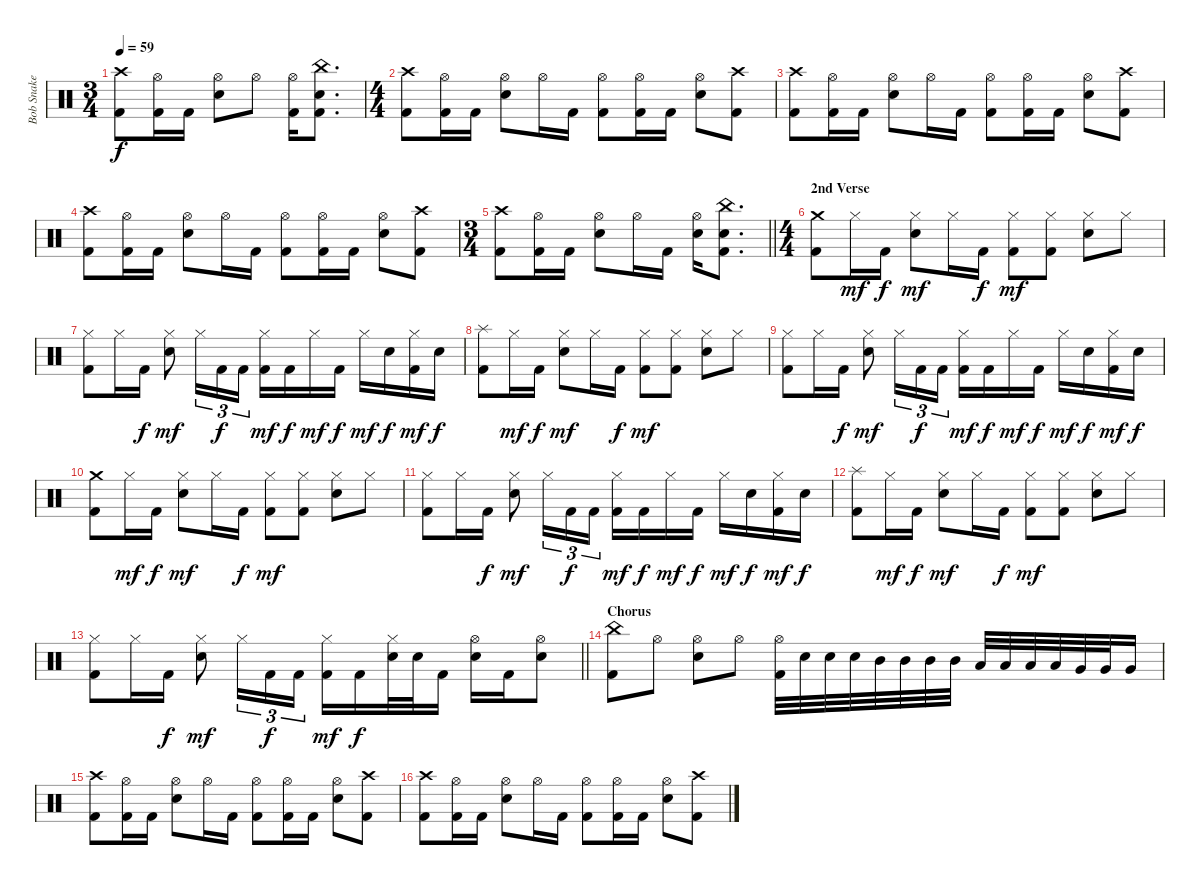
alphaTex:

\track ("Bob Snake" "Bob Snake") {instrument percussion}
\staff {score}
\articulation defaults
\ts (3 4)
\tempo 59
\clef neutral
\ks c
("Crash high (hit)" "Kick (hit) 2").8{dy f} ("Hi-Hat (open)" "Kick (hit) 2").16 "Kick (hit) 2".16 ("Hi-Hat (open)" "Snare (hit) 2").8 "Hi-Hat (open)".8 ("Hi-Hat (open)" "Kick (hit) 2").16 ("China (hit)" "Snare (hit) 2" "Kick (hit) 2").8{d} |
\ts (4 4)
("Crash high (hit)" "Kick (hit) 2").8 ("Hi-Hat (open)" "Kick (hit) 2").16 "Kick (hit) 2".16 ("Hi-Hat (open)" "Snare (hit) 2").8 "Hi-Hat (open)".16 "Kick (hit) 2".16 ("Hi-Hat (open)" "Kick (hit) 2").8 ("Hi-Hat (open)" "Kick (hit) 2").16 "Kick (hit) 2".16 ("Hi-Hat (open)" "Snare (hit) 2").8 ("Crash high (hit)" "Kick (hit) 2").8 |
("Crash high (hit)" "Kick (hit) 2").8 ("Hi-Hat (open)" "Kick (hit) 2").16 "Kick (hit) 2".16 ("Hi-Hat (open)" "Snare (hit) 2").8 "Hi-Hat (open)".16 "Kick (hit) 2".16 ("Hi-Hat (open)" "Kick (hit) 2").8 ("Hi-Hat (open)" "Kick (hit) 2").16 "Kick (hit) 2".16 ("Hi-Hat (open)" "Snare (hit) 2").8 ("Crash high (hit)" "Kick (hit) 2").8 |
("Crash high (hit)" "Kick (hit) 2").8 ("Hi-Hat (open)" "Kick (hit) 2").16 "Kick (hit) 2".16 ("Hi-Hat (open)" "Snare (hit) 2").8 "Hi-Hat (open)".16 "Kick (hit) 2".16 ("Hi-Hat (open)" "Kick (hit) 2").8 ("Hi-Hat (open)" "Kick (hit) 2").16 "Kick (hit) 2".16 ("Hi-Hat (open)" "Snare (hit) 2").8 ("Crash high (hit)" "Kick (hit) 2").8 |
\ts (3 4)
\barLineRight lightlight
("Crash high (hit)" "Kick (hit) 2").8 ("Hi-Hat (open)" "Kick (hit) 2").16 "Kick (hit) 2".16 ("Hi-Hat (open)" "Snare (hit) 2").8 "Hi-Hat (open)".16 "Kick (hit) 2".16 ("Hi-Hat (open)" "Snare (hit) 2").16 ("China (hit)" "Snare (hit) 2" "Kick (hit) 2").8{d} |
\ts (4 4)
\section ("" "2nd Verse")
("Crash medium (hit)" "Kick (hit) 2").8 "Hi-Hat (closed)".16{dy mf} "Kick (hit) 2".16{dy f} ("Hi-Hat (closed)" "Snare (hit) 2").8{dy mf} "Hi-Hat (closed)".16 "Kick (hit) 2".16{dy f} ("Hi-Hat (closed)" "Kick (hit) 2").8{dy mf} ("Hi-Hat (closed)" "Kick (hit) 2").8 ("Hi-Hat (closed)" "Snare (hit) 2").8 "Hi-Hat (closed)".8 |
("Hi-Hat (closed)" "Kick (hit) 2").8 "Hi-Hat (closed)".16 "Kick (hit) 2".16{dy f} ("Hi-Hat (closed)" "Snare (hit) 2").8{dy mf} "Hi-Hat (closed)".16{tu (3 2)} "Kick (hit) 2".16{tu (3 2) dy f} "Kick (hit) 2".16{tu (3 2)} ("Hi-Hat (closed)" "Kick (hit) 2").16{dy mf} "Kick (hit) 2".16{dy f} "Hi-Hat (closed)".16{dy mf} "Kick (hit) 2".16{dy f} "Hi-Hat (closed)".16{dy mf} "Snare (hit) 2".16{dy f} ("Hi-Hat (closed)" "Kick (hit) 2").16{dy mf} "Snare (hit) 2".16{dy f} |
("Splash (hit)" "Kick (hit) 2").8 "Hi-Hat (closed)".16{dy mf} "Kick (hit) 2".16{dy f} ("Hi-Hat (closed)" "Snare (hit) 2").8{dy mf} "Hi-Hat (closed)".16 "Kick (hit) 2".16{dy f} ("Hi-Hat (closed)" "Kick (hit) 2").8{dy mf} ("Hi-Hat (closed)" "Kick (hit) 2").8 ("Hi-Hat (closed)" "Snare (hit) 2").8 "Hi-Hat (closed)".8 |
("Hi-Hat (closed)" "Kick (hit) 2").8 "Hi-Hat (closed)".16 "Kick (hit) 2".16{dy f} ("Hi-Hat (closed)" "Snare (hit) 2").8{dy mf} "Hi-Hat (closed)".16{tu (3 2)} "Kick (hit) 2".16{tu (3 2) dy f} "Kick (hit) 2".16{tu (3 2)} ("Hi-Hat (closed)" "Kick (hit) 2").16{dy mf} "Kick (hit) 2".16{dy f} "Hi-Hat (closed)".16{dy mf} "Kick (hit) 2".16{dy f} "Hi-Hat (closed)".16{dy mf} "Snare (hit) 2".16{dy f} ("Hi-Hat (closed)" "Kick (hit) 2").16{dy mf} "Snare (hit) 2".16{dy f} |
("Crash medium (hit)" "Kick (hit) 2").8 "Hi-Hat (closed)".16{dy mf} "Kick (hit) 2".16{dy f} ("Hi-Hat (closed)" "Snare (hit) 2").8{dy mf} "Hi-Hat (closed)".16 "Kick (hit) 2".16{dy f} ("Hi-Hat (closed)" "Kick (hit) 2").8{dy mf} ("Hi-Hat (closed)" "Kick (hit) 2").8 ("Hi-Hat (closed)" "Snare (hit) 2").8 "Hi-Hat (closed)".8 |
("Hi-Hat (closed)" "Kick (hit) 2").8 "Hi-Hat (closed)".16 "Kick (hit) 2".16{dy f} ("Hi-Hat (closed)" "Snare (hit) 2").8{dy mf} "Hi-Hat (closed)".16{tu (3 2)} "Kick (hit) 2".16{tu (3 2) dy f} "Kick (hit) 2".16{tu (3 2)} ("Hi-Hat (closed)" "Kick (hit) 2").16{dy mf} "Kick (hit) 2".16{dy f} "Hi-Hat (closed)".16{dy mf} "Kick (hit) 2".16{dy f} "Hi-Hat (closed)".16{dy mf} "Snare (hit) 2".16{dy f} ("Hi-Hat (closed)" "Kick (hit) 2").16{dy mf} "Snare (hit) 2".16{dy f} |
("Splash (hit)" "Kick (hit) 2").8 "Hi-Hat (closed)".16{dy mf} "Kick (hit) 2".16{dy f} ("Hi-Hat (closed)" "Snare (hit) 2").8{dy mf} "Hi-Hat (closed)".16 "Kick (hit) 2".16{dy f} ("Hi-Hat (closed)" "Kick (hit) 2").8{dy mf} ("Hi-Hat (closed)" "Kick (hit) 2").8 ("Hi-Hat (closed)" "Snare (hit) 2").8 "Hi-Hat (closed)".8 |
\barLineRight lightlight
("Hi-Hat (closed)" "Kick (hit) 2").8 "Hi-Hat (closed)".16 "Kick (hit) 2".16{dy f} ("Hi-Hat (closed)" "Snare (hit) 2").8{dy mf} "Hi-Hat (closed)".16{tu (3 2)} "Kick (hit) 2".16{tu (3 2) dy f} "Kick (hit) 2".16{tu (3 2)} ("Hi-Hat (closed)" "Kick (hit) 2").16{dy mf} "Kick (hit) 2".16{dy f} ("Hi-Hat (closed)" "Snare (hit) 2").32 "Snare (hit) 2".32 "Kick (hit) 2".16 ("Hi-Hat (open)" "Snare (hit) 2").16 "Kick (hit) 2".16 ("Hi-Hat (open)" "Snare (hit) 2").8 |
\section ("" "Chorus")
("China (hit)" "Kick (hit) 2").8 "Hi-Hat (open)".8 ("Hi-Hat (open)" "Snare (hit) 2").8 "Hi-Hat (open)".8 ("Hi-Hat (open)" "Kick (hit) 2").32 "Snare (hit) 2".32 "Snare (hit) 2".32 "Snare (hit) 2".32 "Mid Tom (hit)".32 "Mid Tom (hit)".32 "Mid Tom (hit)".32 "Mid Tom (hit)".32 "Low Tom (hit)".32 "Low Tom (hit)".32 "Low Tom (hit)".32 "Low Tom (hit)".32 "Very Low Tom (hit)".32 "Very Low Tom (hit)".32 "Very Low Tom (hit)".16 |
("Crash high (hit)" "Kick (hit) 2").8 ("Hi-Hat (open)" "Kick (hit) 2").16 "Kick (hit) 2".16 ("Hi-Hat (open)" "Snare (hit) 2").8 "Hi-Hat (open)".16 "Kick (hit) 2".16 ("Hi-Hat (open)" "Kick (hit) 2").8 ("Hi-Hat (open)" "Kick (hit) 2").16 "Kick (hit) 2".16 ("Hi-Hat (open)" "Snare (hit) 2").8 ("Crash high (hit)" "Kick (hit) 2").8 |
("Crash high (hit)" "Kick (hit) 2").8 ("Hi-Hat (open)" "Kick (hit) 2").16 "Kick (hit) 2".16 ("Hi-Hat (open)" "Snare (hit) 2").8 "Hi-Hat (open)".16 "Kick (hit) 2".16 ("Hi-Hat (open)" "Kick (hit) 2").8 ("Hi-Hat (open)" "Kick (hit) 2").16 "Kick (hit) 2".16 ("Hi-Hat (open)" "Snare (hit) 2").8 ("Crash high (hit)" "Kick (hit) 2").8
